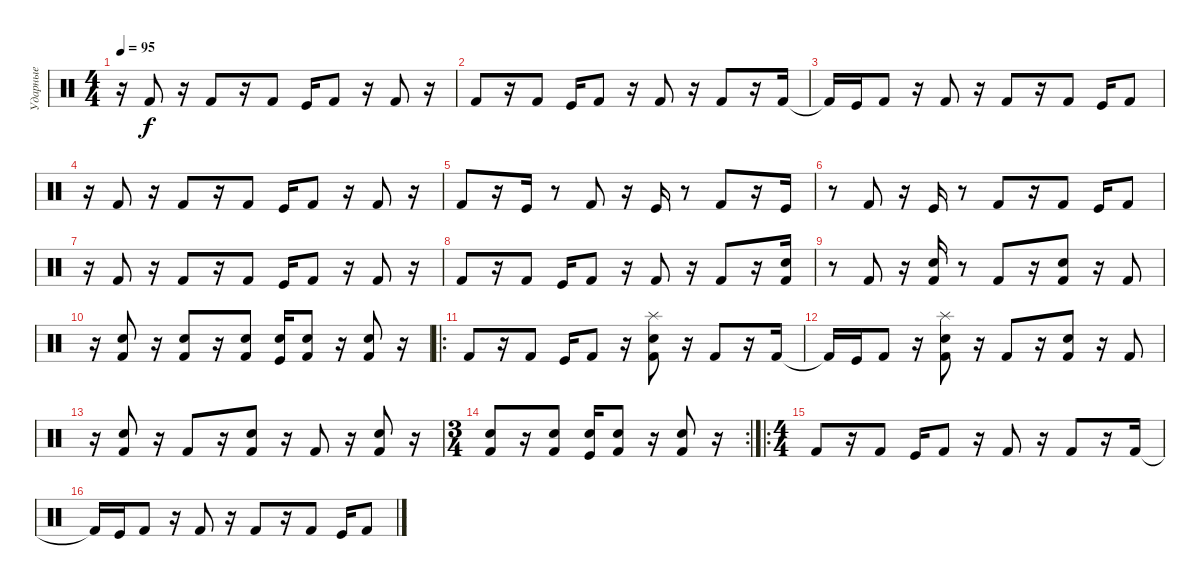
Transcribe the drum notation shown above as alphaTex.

\track ("Ударные" "Ударные") {instrument percussion}
\staff {score}
\articulation defaults
\ts (4 4)
\tempo 95
\clef neutral
\ks c
r.16{dy f} "Kick (hit) 2".8 r.16 "Kick (hit) 2".8 r.16 "Kick (hit) 2".8 "Kick (hit)".16 "Kick (hit) 2".8 r.16 "Kick (hit) 2".8 r.16 |
"Kick (hit) 2".8 r.16 "Kick (hit) 2".8 "Kick (hit)".16 "Kick (hit) 2".8 r.16 "Kick (hit) 2".8 r.16 "Kick (hit) 2".8 r.16 "Kick (hit) 2".16 |
"Kick (hit) 2"{t}.16 "Kick (hit)".16 "Kick (hit) 2".8 r.16 "Kick (hit) 2".8 r.16 "Kick (hit) 2".8 r.16 "Kick (hit) 2".8 "Kick (hit)".16 "Kick (hit) 2".8 |
r.16 "Kick (hit) 2".8 r.16 "Kick (hit) 2".8 r.16 "Kick (hit) 2".8 "Kick (hit)".16 "Kick (hit) 2".8 r.16 "Kick (hit) 2".8 r.16 |
"Kick (hit) 2".8 r.16 "Kick (hit)".16 r.8 "Kick (hit) 2".8 r.16 "Kick (hit)".16 r.8 "Kick (hit) 2".8 r.16 "Kick (hit)".16 |
r.8 "Kick (hit) 2".8 r.16 "Kick (hit)".16 r.8 "Kick (hit) 2".8 r.16 "Kick (hit) 2".8 "Kick (hit)".16 "Kick (hit) 2".8 |
r.16 "Kick (hit) 2".8 r.16 "Kick (hit) 2".8 r.16 "Kick (hit) 2".8 "Kick (hit)".16 "Kick (hit) 2".8 r.16 "Kick (hit) 2".8 r.16 |
"Kick (hit) 2".8 r.16 "Kick (hit) 2".8 "Kick (hit)".16 "Kick (hit) 2".8 r.16 "Kick (hit) 2".8 r.16 "Kick (hit) 2".8 r.16 ("Kick (hit) 2" "Hand Clap (hit)").16 |
r.8 "Kick (hit) 2".8 r.16 ("Kick (hit) 2" "Hand Clap (hit)").16 r.8 "Kick (hit) 2".8 r.16 ("Kick (hit) 2" "Hand Clap (hit)").8 r.16 "Kick (hit) 2".8 |
r.16 ("Kick (hit) 2" "Hand Clap (hit)").8 r.16 ("Kick (hit) 2" "Hand Clap (hit)").8 r.16 ("Kick (hit) 2" "Hand Clap (hit)").8 ("Kick (hit)" "Hand Clap (hit)").16 ("Kick (hit) 2" "Hand Clap (hit)").8 r.16 ("Kick (hit) 2" "Hand Clap (hit)").8 r.16 |
\ro "Kick (hit) 2".8
r.16 "Kick (hit) 2".8 "Kick (hit)".16 "Kick (hit) 2".8 r.16 ("Kick (hit) 2" "Hand Clap (hit)" "Splash (hit)").8 r.16 "Kick (hit) 2".8 r.16 "Kick (hit) 2".16 |
"Kick (hit) 2"{t}.16 "Kick (hit)".16 "Kick (hit) 2".8 r.16 ("Kick (hit) 2" "Hand Clap (hit)" "Splash (hit)").8 r.16 "Kick (hit) 2".8 r.16 ("Kick (hit) 2" "Hand Clap (hit)").8 r.16 "Kick (hit) 2".8 |
r.16 ("Kick (hit) 2" "Hand Clap (hit)").8 r.16 "Kick (hit) 2".8 r.16 ("Kick (hit) 2" "Hand Clap (hit)").8 r.16 "Kick (hit) 2".8 r.16 ("Kick (hit) 2" "Hand Clap (hit)").8 r.16 |
\rc 2
\ts (3 4)
("Kick (hit) 2" "Hand Clap (hit)").8 r.16 ("Kick (hit) 2" "Hand Clap (hit)").8 ("Kick (hit)" "Hand Clap (hit)").16 ("Kick (hit) 2" "Hand Clap (hit)").8 r.16 ("Kick (hit) 2" "Hand Clap (hit)").8 r.16 |
\ro
\ts (4 4)
"Kick (hit) 2".8 r.16 "Kick (hit) 2".8 "Kick (hit)".16 "Kick (hit) 2".8 r.16 "Kick (hit) 2".8 r.16 "Kick (hit) 2".8 r.16 "Kick (hit) 2".16 |
"Kick (hit) 2"{t}.16 "Kick (hit)".16 "Kick (hit) 2".8 r.16 "Kick (hit) 2".8 r.16 "Kick (hit) 2".8 r.16 "Kick (hit) 2".8 "Kick (hit)".16 "Kick (hit) 2".8
